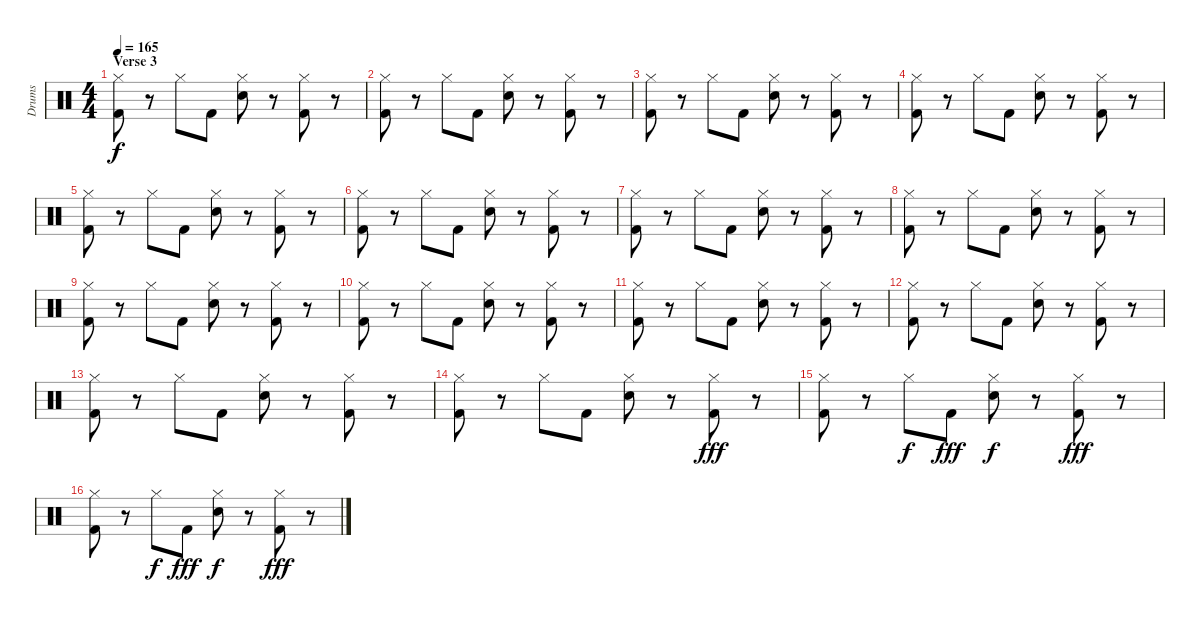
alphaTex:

\track ("Drums" "Drums") {instrument percussion}
\staff {score}
\articulation defaults
\ts (4 4)
\section ("" "Verse 3")
\tempo 165
\clef neutral
\ks c
("Hi-Hat (closed)" "Kick (hit) 2").8{dy f} r.8 "Hi-Hat (closed)".8 "Kick (hit) 2".8 ("Hi-Hat (closed)" "Electric Snare (hit)").8 r.8 ("Hi-Hat (closed)" "Kick (hit) 2").8 r.8 |
("Hi-Hat (closed)" "Kick (hit) 2").8 r.8 "Hi-Hat (closed)".8 "Kick (hit) 2".8 ("Hi-Hat (closed)" "Electric Snare (hit)").8 r.8 ("Hi-Hat (closed)" "Kick (hit) 2").8 r.8 |
("Hi-Hat (closed)" "Kick (hit) 2").8 r.8 "Hi-Hat (closed)".8 "Kick (hit) 2".8 ("Hi-Hat (closed)" "Electric Snare (hit)").8 r.8 ("Hi-Hat (closed)" "Kick (hit) 2").8 r.8 |
("Hi-Hat (closed)" "Kick (hit) 2").8 r.8 "Hi-Hat (closed)".8 "Kick (hit) 2".8 ("Hi-Hat (closed)" "Electric Snare (hit)").8 r.8 ("Hi-Hat (closed)" "Kick (hit) 2").8 r.8 |
("Hi-Hat (closed)" "Kick (hit) 2").8 r.8 "Hi-Hat (closed)".8 "Kick (hit) 2".8 ("Hi-Hat (closed)" "Electric Snare (hit)").8 r.8 ("Hi-Hat (closed)" "Kick (hit) 2").8 r.8 |
("Hi-Hat (closed)" "Kick (hit) 2").8 r.8 "Hi-Hat (closed)".8 "Kick (hit) 2".8 ("Hi-Hat (closed)" "Electric Snare (hit)").8 r.8 ("Hi-Hat (closed)" "Kick (hit) 2").8 r.8 |
("Hi-Hat (closed)" "Kick (hit) 2").8 r.8 "Hi-Hat (closed)".8 "Kick (hit) 2".8 ("Hi-Hat (closed)" "Electric Snare (hit)").8 r.8 ("Hi-Hat (closed)" "Kick (hit) 2").8 r.8 |
("Hi-Hat (closed)" "Kick (hit) 2").8 r.8 "Hi-Hat (closed)".8 "Kick (hit) 2".8 ("Hi-Hat (closed)" "Electric Snare (hit)").8 r.8 ("Hi-Hat (closed)" "Kick (hit) 2").8 r.8 |
("Hi-Hat (closed)" "Kick (hit) 2").8 r.8 "Hi-Hat (closed)".8 "Kick (hit) 2".8 ("Hi-Hat (closed)" "Electric Snare (hit)").8 r.8 ("Hi-Hat (closed)" "Kick (hit) 2").8 r.8 |
("Hi-Hat (closed)" "Kick (hit) 2").8 r.8 "Hi-Hat (closed)".8 "Kick (hit) 2".8 ("Hi-Hat (closed)" "Electric Snare (hit)").8 r.8 ("Hi-Hat (closed)" "Kick (hit) 2").8 r.8 |
("Hi-Hat (closed)" "Kick (hit) 2").8 r.8 "Hi-Hat (closed)".8 "Kick (hit) 2".8 ("Hi-Hat (closed)" "Electric Snare (hit)").8 r.8 ("Hi-Hat (closed)" "Kick (hit) 2").8 r.8 |
("Hi-Hat (closed)" "Kick (hit) 2").8 r.8 "Hi-Hat (closed)".8 "Kick (hit) 2".8 ("Hi-Hat (closed)" "Electric Snare (hit)").8 r.8 ("Hi-Hat (closed)" "Kick (hit) 2").8 r.8 |
("Hi-Hat (closed)" "Kick (hit) 2").8 r.8 "Hi-Hat (closed)".8 "Kick (hit) 2".8 ("Hi-Hat (closed)" "Electric Snare (hit)").8 r.8 ("Hi-Hat (closed)" "Kick (hit) 2").8 r.8 |
("Hi-Hat (closed)" "Kick (hit) 2").8 r.8 "Hi-Hat (closed)".8 "Kick (hit) 2".8 ("Hi-Hat (closed)" "Electric Snare (hit)").8 r.8 ("Hi-Hat (closed)" "Kick (hit) 2").8{dy fff} r.8 |
("Hi-Hat (closed)" "Kick (hit) 2").8 r.8 "Hi-Hat (closed)".8{dy f} "Kick (hit) 2".8{dy fff} ("Hi-Hat (closed)" "Electric Snare (hit)").8{dy f} r.8 ("Hi-Hat (closed)" "Kick (hit) 2").8{dy fff} r.8 |
("Hi-Hat (closed)" "Kick (hit) 2").8 r.8 "Hi-Hat (closed)".8{dy f} "Kick (hit) 2".8{dy fff} ("Hi-Hat (closed)" "Electric Snare (hit)").8{dy f} r.8 ("Hi-Hat (closed)" "Kick (hit) 2").8{dy fff} r.8
